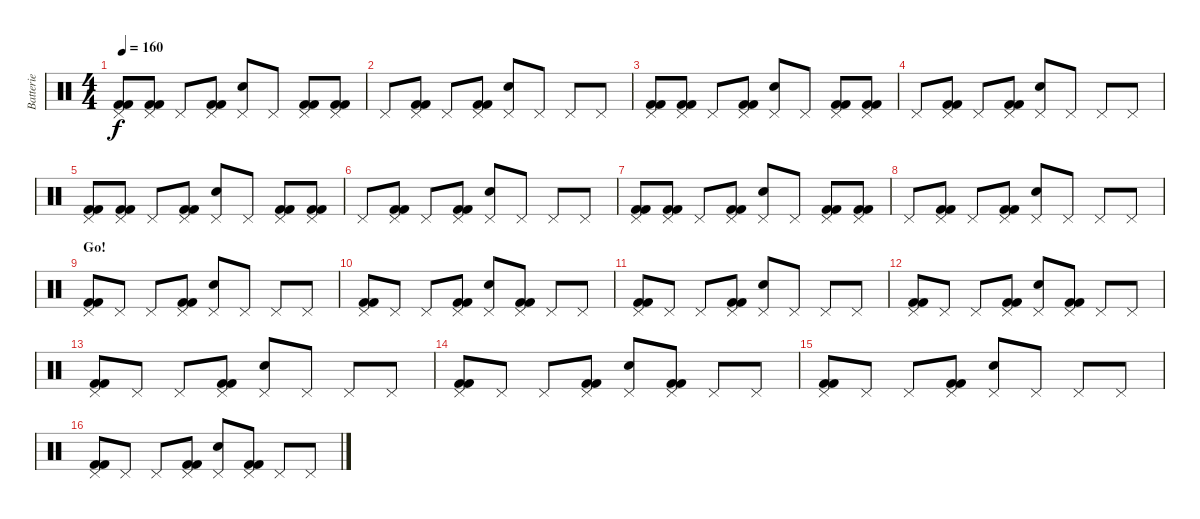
\track ("Batterie" "Batterie") {instrument percussion}
\staff {score}
\articulation defaults
\ts (4 4)
\tempo 160
\clef neutral
\ks c
("Pedal Hi-Hat (hit)" "Kick (hit) 2" "Kick (hit) 2").8{dy f} ("Pedal Hi-Hat (hit)" "Kick (hit) 2" "Kick (hit) 2").8 "Pedal Hi-Hat (hit)".8 ("Pedal Hi-Hat (hit)" "Kick (hit) 2" "Kick (hit) 2").8 ("Pedal Hi-Hat (hit)" "Electric Snare (hit)").8 "Pedal Hi-Hat (hit)".8 ("Pedal Hi-Hat (hit)" "Kick (hit) 2" "Kick (hit) 2").8 ("Pedal Hi-Hat (hit)" "Kick (hit) 2" "Kick (hit) 2").8 |
"Pedal Hi-Hat (hit)".8 ("Pedal Hi-Hat (hit)" "Kick (hit) 2" "Kick (hit) 2").8 "Pedal Hi-Hat (hit)".8 ("Pedal Hi-Hat (hit)" "Kick (hit) 2" "Kick (hit) 2").8 ("Pedal Hi-Hat (hit)" "Electric Snare (hit)").8 "Pedal Hi-Hat (hit)".8 "Pedal Hi-Hat (hit)".8 "Pedal Hi-Hat (hit)".8 |
("Pedal Hi-Hat (hit)" "Kick (hit) 2" "Kick (hit) 2").8 ("Pedal Hi-Hat (hit)" "Kick (hit) 2" "Kick (hit) 2").8 "Pedal Hi-Hat (hit)".8 ("Pedal Hi-Hat (hit)" "Kick (hit) 2" "Kick (hit) 2").8 ("Pedal Hi-Hat (hit)" "Electric Snare (hit)").8 "Pedal Hi-Hat (hit)".8 ("Pedal Hi-Hat (hit)" "Kick (hit) 2" "Kick (hit) 2").8 ("Pedal Hi-Hat (hit)" "Kick (hit) 2" "Kick (hit) 2").8 |
"Pedal Hi-Hat (hit)".8 ("Pedal Hi-Hat (hit)" "Kick (hit) 2" "Kick (hit) 2").8 "Pedal Hi-Hat (hit)".8 ("Pedal Hi-Hat (hit)" "Kick (hit) 2" "Kick (hit) 2").8 ("Pedal Hi-Hat (hit)" "Electric Snare (hit)").8 "Pedal Hi-Hat (hit)".8 "Pedal Hi-Hat (hit)".8 "Pedal Hi-Hat (hit)".8 |
("Pedal Hi-Hat (hit)" "Kick (hit) 2" "Kick (hit) 2").8 ("Pedal Hi-Hat (hit)" "Kick (hit) 2" "Kick (hit) 2").8 "Pedal Hi-Hat (hit)".8 ("Pedal Hi-Hat (hit)" "Kick (hit) 2" "Kick (hit) 2").8 ("Pedal Hi-Hat (hit)" "Electric Snare (hit)").8 "Pedal Hi-Hat (hit)".8 ("Pedal Hi-Hat (hit)" "Kick (hit) 2" "Kick (hit) 2").8 ("Pedal Hi-Hat (hit)" "Kick (hit) 2" "Kick (hit) 2").8 |
"Pedal Hi-Hat (hit)".8 ("Pedal Hi-Hat (hit)" "Kick (hit) 2" "Kick (hit) 2").8 "Pedal Hi-Hat (hit)".8 ("Pedal Hi-Hat (hit)" "Kick (hit) 2" "Kick (hit) 2").8 ("Pedal Hi-Hat (hit)" "Electric Snare (hit)").8 "Pedal Hi-Hat (hit)".8 "Pedal Hi-Hat (hit)".8 "Pedal Hi-Hat (hit)".8 |
("Pedal Hi-Hat (hit)" "Kick (hit) 2" "Kick (hit) 2").8 ("Pedal Hi-Hat (hit)" "Kick (hit) 2" "Kick (hit) 2").8 "Pedal Hi-Hat (hit)".8 ("Pedal Hi-Hat (hit)" "Kick (hit) 2" "Kick (hit) 2").8 ("Pedal Hi-Hat (hit)" "Electric Snare (hit)").8 "Pedal Hi-Hat (hit)".8 ("Pedal Hi-Hat (hit)" "Kick (hit) 2" "Kick (hit) 2").8 ("Pedal Hi-Hat (hit)" "Kick (hit) 2" "Kick (hit) 2").8 |
"Pedal Hi-Hat (hit)".8 ("Pedal Hi-Hat (hit)" "Kick (hit) 2" "Kick (hit) 2").8 "Pedal Hi-Hat (hit)".8 ("Pedal Hi-Hat (hit)" "Kick (hit) 2" "Kick (hit) 2").8 ("Pedal Hi-Hat (hit)" "Electric Snare (hit)").8 "Pedal Hi-Hat (hit)".8 "Pedal Hi-Hat (hit)".8 "Pedal Hi-Hat (hit)".8 |
\section ("" "Go!")
("Pedal Hi-Hat (hit)" "Kick (hit) 2" "Kick (hit) 2").8 "Pedal Hi-Hat (hit)".8 "Pedal Hi-Hat (hit)".8 ("Pedal Hi-Hat (hit)" "Kick (hit) 2" "Kick (hit) 2").8 ("Pedal Hi-Hat (hit)" "Electric Snare (hit)").8 "Pedal Hi-Hat (hit)".8 "Pedal Hi-Hat (hit)".8 "Pedal Hi-Hat (hit)".8 |
("Pedal Hi-Hat (hit)" "Kick (hit) 2" "Kick (hit) 2").8 "Pedal Hi-Hat (hit)".8 "Pedal Hi-Hat (hit)".8 ("Pedal Hi-Hat (hit)" "Kick (hit) 2" "Kick (hit) 2").8 ("Pedal Hi-Hat (hit)" "Electric Snare (hit)").8 ("Pedal Hi-Hat (hit)" "Kick (hit) 2" "Kick (hit) 2").8 "Pedal Hi-Hat (hit)".8 "Pedal Hi-Hat (hit)".8 |
("Pedal Hi-Hat (hit)" "Kick (hit) 2" "Kick (hit) 2").8 "Pedal Hi-Hat (hit)".8 "Pedal Hi-Hat (hit)".8 ("Pedal Hi-Hat (hit)" "Kick (hit) 2" "Kick (hit) 2").8 ("Pedal Hi-Hat (hit)" "Electric Snare (hit)").8 "Pedal Hi-Hat (hit)".8 "Pedal Hi-Hat (hit)".8 "Pedal Hi-Hat (hit)".8 |
("Pedal Hi-Hat (hit)" "Kick (hit) 2" "Kick (hit) 2").8 "Pedal Hi-Hat (hit)".8 "Pedal Hi-Hat (hit)".8 ("Pedal Hi-Hat (hit)" "Kick (hit) 2" "Kick (hit) 2").8 ("Pedal Hi-Hat (hit)" "Electric Snare (hit)").8 ("Pedal Hi-Hat (hit)" "Kick (hit) 2" "Kick (hit) 2").8 "Pedal Hi-Hat (hit)".8 "Pedal Hi-Hat (hit)".8 |
("Pedal Hi-Hat (hit)" "Kick (hit) 2" "Kick (hit) 2").8 "Pedal Hi-Hat (hit)".8 "Pedal Hi-Hat (hit)".8 ("Pedal Hi-Hat (hit)" "Kick (hit) 2" "Kick (hit) 2").8 ("Pedal Hi-Hat (hit)" "Electric Snare (hit)").8 "Pedal Hi-Hat (hit)".8 "Pedal Hi-Hat (hit)".8 "Pedal Hi-Hat (hit)".8 |
("Pedal Hi-Hat (hit)" "Kick (hit) 2" "Kick (hit) 2").8 "Pedal Hi-Hat (hit)".8 "Pedal Hi-Hat (hit)".8 ("Pedal Hi-Hat (hit)" "Kick (hit) 2" "Kick (hit) 2").8 ("Pedal Hi-Hat (hit)" "Electric Snare (hit)").8 ("Pedal Hi-Hat (hit)" "Kick (hit) 2" "Kick (hit) 2").8 "Pedal Hi-Hat (hit)".8 "Pedal Hi-Hat (hit)".8 |
("Pedal Hi-Hat (hit)" "Kick (hit) 2" "Kick (hit) 2").8 "Pedal Hi-Hat (hit)".8 "Pedal Hi-Hat (hit)".8 ("Pedal Hi-Hat (hit)" "Kick (hit) 2" "Kick (hit) 2").8 ("Pedal Hi-Hat (hit)" "Electric Snare (hit)").8 "Pedal Hi-Hat (hit)".8 "Pedal Hi-Hat (hit)".8 "Pedal Hi-Hat (hit)".8 |
("Pedal Hi-Hat (hit)" "Kick (hit) 2" "Kick (hit) 2").8 "Pedal Hi-Hat (hit)".8 "Pedal Hi-Hat (hit)".8 ("Pedal Hi-Hat (hit)" "Kick (hit) 2" "Kick (hit) 2").8 ("Pedal Hi-Hat (hit)" "Electric Snare (hit)").8 ("Pedal Hi-Hat (hit)" "Kick (hit) 2" "Kick (hit) 2").8 "Pedal Hi-Hat (hit)".8 "Pedal Hi-Hat (hit)".8
